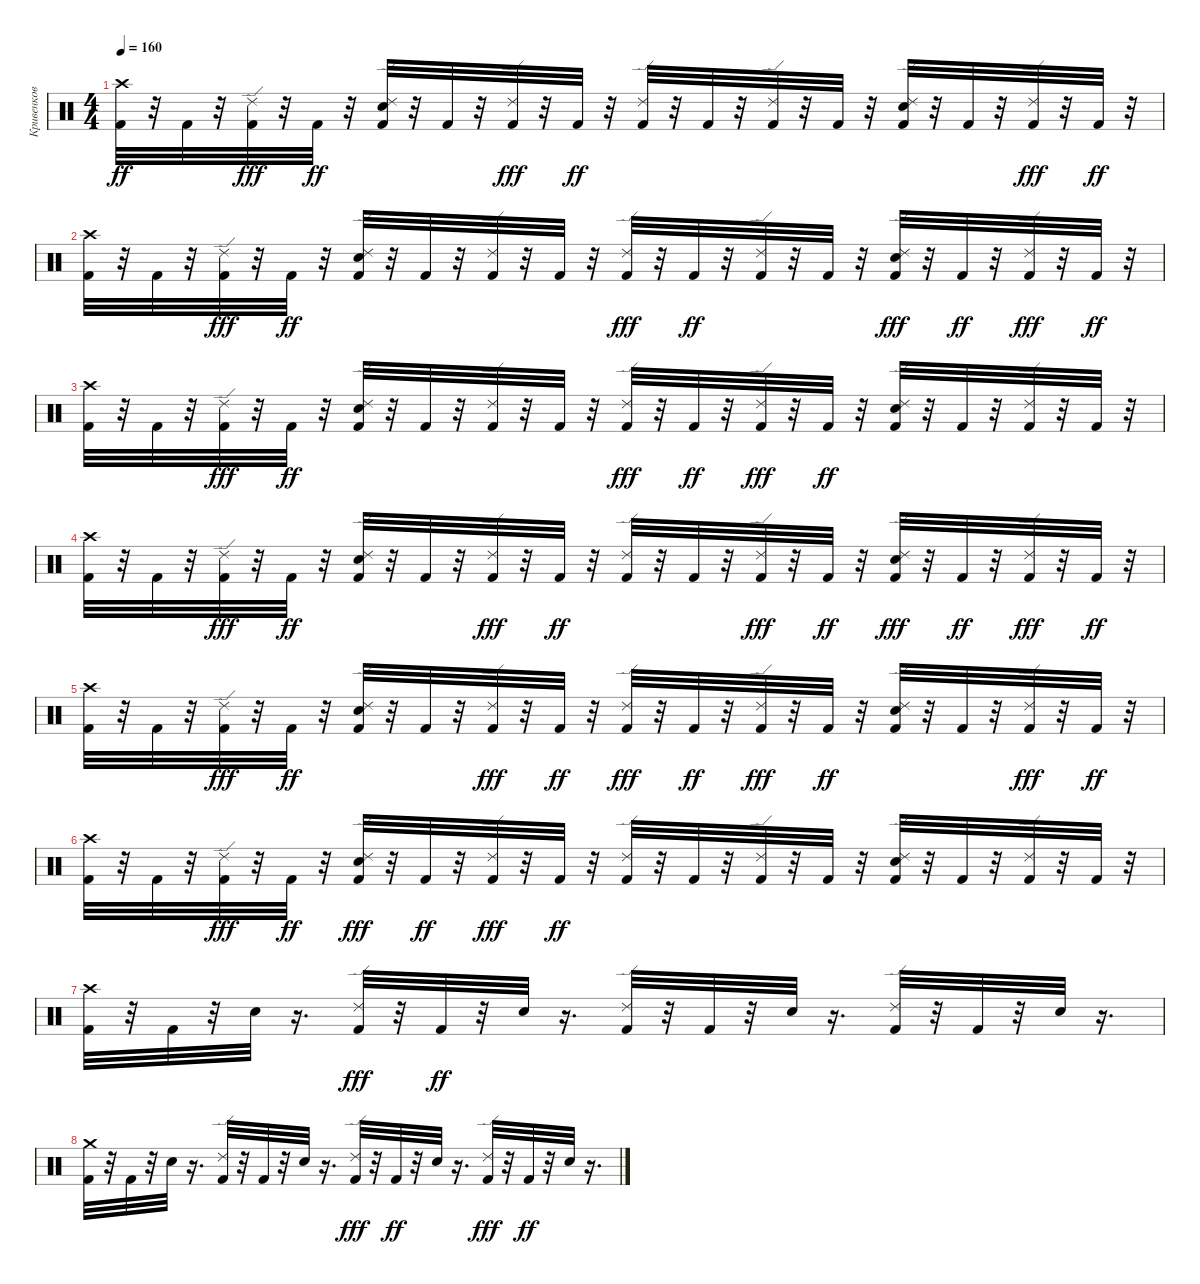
\track ("Кривенков" "Кривенков") {instrument percussion}
\staff {score}
\articulation defaults
\ts (4 4)
\tempo 160
\clef neutral
\ks c
("Crash high (hit)" "Kick (hit) 2").32{dy ff} r.32 "Kick (hit) 2".32 r.32 ("Kick (hit) 2" "Ride (edge) 2").32{dy fff} r.32 "Kick (hit) 2".32{dy ff} r.32 ("Electric Snare (hit)" "Ride (edge) 2" "Kick (hit) 2").32 r.32 "Kick (hit) 2".32 r.32 ("Kick (hit) 2" "Ride (edge) 2").32{dy fff} r.32 "Kick (hit) 2".32{dy ff} r.32 ("Ride (edge) 2" "Kick (hit) 2").32 r.32 "Kick (hit) 2".32 r.32 ("Ride (edge) 2" "Kick (hit) 2").32 r.32 "Kick (hit) 2".32 r.32 ("Ride (edge) 2" "Kick (hit) 2" "Electric Snare (hit)").32 r.32 "Kick (hit) 2".32 r.32 ("Kick (hit) 2" "Ride (edge) 2").32{dy fff} r.32 "Kick (hit) 2".32{dy ff} r.32 |
("Crash high (hit)" "Kick (hit) 2").32 r.32 "Kick (hit) 2".32 r.32 ("Kick (hit) 2" "Ride (edge) 2").32{dy fff} r.32 "Kick (hit) 2".32{dy ff} r.32 ("Kick (hit) 2" "Ride (edge) 2" "Electric Snare (hit)").32 r.32 "Kick (hit) 2".32 r.32 ("Ride (edge) 2" "Kick (hit) 2").32 r.32 "Kick (hit) 2".32 r.32 ("Kick (hit) 2" "Ride (edge) 2").32{dy fff} r.32 "Kick (hit) 2".32{dy ff} r.32 ("Ride (edge) 2" "Kick (hit) 2").32 r.32 "Kick (hit) 2".32 r.32 ("Kick (hit) 2" "Electric Snare (hit)" "Ride (edge) 2").32{dy fff} r.32 "Kick (hit) 2".32{dy ff} r.32 ("Kick (hit) 2" "Ride (edge) 2").32{dy fff} r.32 "Kick (hit) 2".32{dy ff} r.32 |
("Crash high (hit)" "Kick (hit) 2").32 r.32 "Kick (hit) 2".32 r.32 ("Kick (hit) 2" "Ride (edge) 2").32{dy fff} r.32 "Kick (hit) 2".32{dy ff} r.32 ("Ride (edge) 2" "Kick (hit) 2" "Electric Snare (hit)").32 r.32 "Kick (hit) 2".32 r.32 ("Ride (edge) 2" "Kick (hit) 2").32 r.32 "Kick (hit) 2".32 r.32 ("Kick (hit) 2" "Ride (edge) 2").32{dy fff} r.32 "Kick (hit) 2".32{dy ff} r.32 ("Kick (hit) 2" "Ride (edge) 2").32{dy fff} r.32 "Kick (hit) 2".32{dy ff} r.32 ("Ride (edge) 2" "Kick (hit) 2" "Electric Snare (hit)").32 r.32 "Kick (hit) 2".32 r.32 ("Ride (edge) 2" "Kick (hit) 2").32 r.32 "Kick (hit) 2".32 r.32 |
("Crash high (hit)" "Kick (hit) 2").32 r.32 "Kick (hit) 2".32 r.32 ("Kick (hit) 2" "Ride (edge) 2").32{dy fff} r.32 "Kick (hit) 2".32{dy ff} r.32 ("Electric Snare (hit)" "Ride (edge) 2" "Kick (hit) 2").32 r.32 "Kick (hit) 2".32 r.32 ("Kick (hit) 2" "Ride (edge) 2").32{dy fff} r.32 "Kick (hit) 2".32{dy ff} r.32 ("Ride (edge) 2" "Kick (hit) 2").32 r.32 "Kick (hit) 2".32 r.32 ("Kick (hit) 2" "Ride (edge) 2").32{dy fff} r.32 "Kick (hit) 2".32{dy ff} r.32 ("Kick (hit) 2" "Electric Snare (hit)" "Ride (edge) 2").32{dy fff} r.32 "Kick (hit) 2".32{dy ff} r.32 ("Kick (hit) 2" "Ride (edge) 2").32{dy fff} r.32 "Kick (hit) 2".32{dy ff} r.32 |
("Kick (hit) 2" "Crash high (hit)").32 r.32 "Kick (hit) 2".32 r.32 ("Kick (hit) 2" "Ride (edge) 2").32{dy fff} r.32 "Kick (hit) 2".32{dy ff} r.32 ("Ride (edge) 2" "Kick (hit) 2" "Electric Snare (hit)").32 r.32 "Kick (hit) 2".32 r.32 ("Kick (hit) 2" "Ride (edge) 2").32{dy fff} r.32 "Kick (hit) 2".32{dy ff} r.32 ("Kick (hit) 2" "Ride (edge) 2").32{dy fff} r.32 "Kick (hit) 2".32{dy ff} r.32 ("Kick (hit) 2" "Ride (edge) 2").32{dy fff} r.32 "Kick (hit) 2".32{dy ff} r.32 ("Ride (edge) 2" "Electric Snare (hit)" "Kick (hit) 2").32 r.32 "Kick (hit) 2".32 r.32 ("Kick (hit) 2" "Ride (edge) 2").32{dy fff} r.32 "Kick (hit) 2".32{dy ff} r.32 |
("Kick (hit) 2" "Crash high (hit)").32 r.32 "Kick (hit) 2".32 r.32 ("Kick (hit) 2" "Ride (edge) 2").32{dy fff} r.32 "Kick (hit) 2".32{dy ff} r.32 ("Kick (hit) 2" "Electric Snare (hit)" "Ride (edge) 2").32{dy fff} r.32 "Kick (hit) 2".32{dy ff} r.32 ("Kick (hit) 2" "Ride (edge) 2").32{dy fff} r.32 "Kick (hit) 2".32{dy ff} r.32 ("Ride (edge) 2" "Kick (hit) 2").32 r.32 "Kick (hit) 2".32 r.32 ("Ride (edge) 2" "Kick (hit) 2").32 r.32 "Kick (hit) 2".32 r.32 ("Ride (edge) 2" "Kick (hit) 2" "Electric Snare (hit)").32 r.32 "Kick (hit) 2".32 r.32 ("Ride (edge) 2" "Kick (hit) 2").32 r.32 "Kick (hit) 2".32 r.32 |
("Kick (hit) 2" "Crash high (hit)").32 r.32 "Kick (hit) 2".32 r.32 "Electric Snare (hit)".32 r.16{d} ("Kick (hit) 2" "Ride (edge) 2").32{dy fff} r.32 "Kick (hit) 2".32{dy ff} r.32 "Electric Snare (hit)".32 r.16{d} ("Ride (edge) 2" "Kick (hit) 2").32 r.32 "Kick (hit) 2".32 r.32 "Electric Snare (hit)".32 r.16{d} ("Ride (edge) 2" "Kick (hit) 2").32 r.32 "Kick (hit) 2".32 r.32 "Electric Snare (hit)".32 r.16{d} |
("Kick (hit) 2" "Crash medium (hit)").32 r.32 "Kick (hit) 2".32 r.32 "Electric Snare (hit)".32 r.16{d} ("Ride (edge) 2" "Kick (hit) 2").32 r.32 "Kick (hit) 2".32 r.32 "Electric Snare (hit)".32 r.16{d} ("Kick (hit) 2" "Ride (edge) 2").32{dy fff} r.32 "Kick (hit) 2".32{dy ff} r.32 "Electric Snare (hit)".32 r.16{d} ("Kick (hit) 2" "Ride (edge) 2").32{dy fff} r.32 "Kick (hit) 2".32{dy ff} r.32 "Electric Snare (hit)".32 r.16{d}
